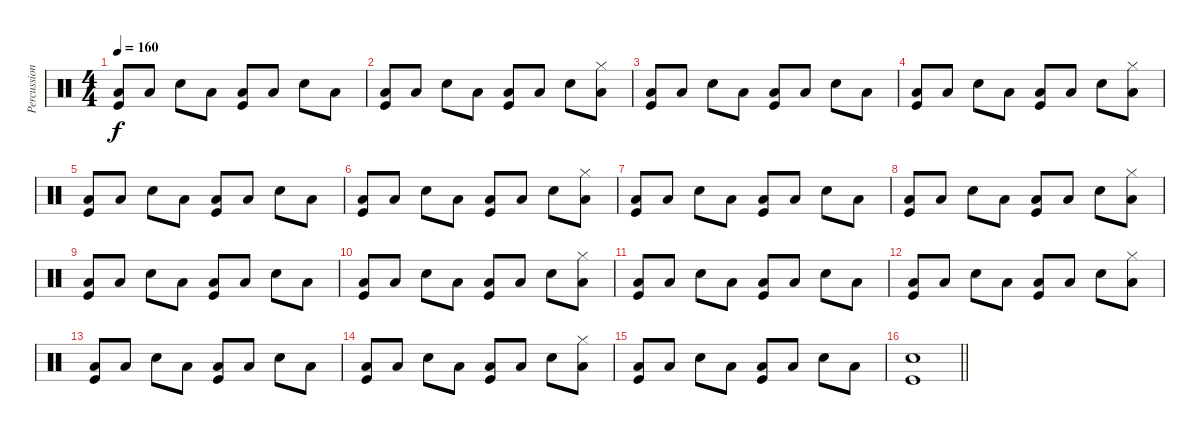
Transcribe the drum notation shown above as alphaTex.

\track ("Percussion" "Percussion") {instrument percussion}
\staff {score}
\articulation defaults
\ts (4 4)
\tempo 160
\clef neutral
\ks c
("Kick (hit)" "Low Floor Tom (hit)").8{dy f} "Low Floor Tom (hit)".8 "Electric Snare (hit)".8 "Low Floor Tom (hit)".8 ("Kick (hit)" "Low Floor Tom (hit)").8 "Low Floor Tom (hit)".8 "Electric Snare (hit)".8 "Low Floor Tom (hit)".8 |
("Kick (hit)" "Low Floor Tom (hit)").8 "Low Floor Tom (hit)".8 "Electric Snare (hit)".8 "Low Floor Tom (hit)".8 ("Kick (hit)" "Low Floor Tom (hit)").8 "Low Floor Tom (hit)".8 "Electric Snare (hit)".8 ("Low Floor Tom (hit)" "Hi-Hat (closed)").8 |
("Kick (hit)" "Low Floor Tom (hit)").8 "Low Floor Tom (hit)".8 "Electric Snare (hit)".8 "Low Floor Tom (hit)".8 ("Kick (hit)" "Low Floor Tom (hit)").8 "Low Floor Tom (hit)".8 "Electric Snare (hit)".8 "Low Floor Tom (hit)".8 |
("Kick (hit)" "Low Floor Tom (hit)").8 "Low Floor Tom (hit)".8 "Electric Snare (hit)".8 "Low Floor Tom (hit)".8 ("Kick (hit)" "Low Floor Tom (hit)").8 "Low Floor Tom (hit)".8 "Electric Snare (hit)".8 ("Low Floor Tom (hit)" "Hi-Hat (closed)").8 |
("Kick (hit)" "Low Floor Tom (hit)").8 "Low Floor Tom (hit)".8 "Electric Snare (hit)".8 "Low Floor Tom (hit)".8 ("Kick (hit)" "Low Floor Tom (hit)").8 "Low Floor Tom (hit)".8 "Electric Snare (hit)".8 "Low Floor Tom (hit)".8 |
("Kick (hit)" "Low Floor Tom (hit)").8 "Low Floor Tom (hit)".8 "Electric Snare (hit)".8 "Low Floor Tom (hit)".8 ("Kick (hit)" "Low Floor Tom (hit)").8 "Low Floor Tom (hit)".8 "Electric Snare (hit)".8 ("Low Floor Tom (hit)" "Hi-Hat (closed)").8 |
("Kick (hit)" "Low Floor Tom (hit)").8 "Low Floor Tom (hit)".8 "Electric Snare (hit)".8 "Low Floor Tom (hit)".8 ("Kick (hit)" "Low Floor Tom (hit)").8 "Low Floor Tom (hit)".8 "Electric Snare (hit)".8 "Low Floor Tom (hit)".8 |
("Kick (hit)" "Low Floor Tom (hit)").8 "Low Floor Tom (hit)".8 "Electric Snare (hit)".8 "Low Floor Tom (hit)".8 ("Kick (hit)" "Low Floor Tom (hit)").8 "Low Floor Tom (hit)".8 "Electric Snare (hit)".8 ("Low Floor Tom (hit)" "Hi-Hat (closed)").8 |
("Kick (hit)" "Low Floor Tom (hit)").8 "Low Floor Tom (hit)".8 "Electric Snare (hit)".8 "Low Floor Tom (hit)".8 ("Kick (hit)" "Low Floor Tom (hit)").8 "Low Floor Tom (hit)".8 "Electric Snare (hit)".8 "Low Floor Tom (hit)".8 |
("Kick (hit)" "Low Floor Tom (hit)").8 "Low Floor Tom (hit)".8 "Electric Snare (hit)".8 "Low Floor Tom (hit)".8 ("Kick (hit)" "Low Floor Tom (hit)").8 "Low Floor Tom (hit)".8 "Electric Snare (hit)".8 ("Low Floor Tom (hit)" "Hi-Hat (closed)").8 |
("Kick (hit)" "Low Floor Tom (hit)").8 "Low Floor Tom (hit)".8 "Electric Snare (hit)".8 "Low Floor Tom (hit)".8 ("Kick (hit)" "Low Floor Tom (hit)").8 "Low Floor Tom (hit)".8 "Electric Snare (hit)".8 "Low Floor Tom (hit)".8 |
("Kick (hit)" "Low Floor Tom (hit)").8 "Low Floor Tom (hit)".8 "Electric Snare (hit)".8 "Low Floor Tom (hit)".8 ("Kick (hit)" "Low Floor Tom (hit)").8 "Low Floor Tom (hit)".8 "Electric Snare (hit)".8 ("Low Floor Tom (hit)" "Hi-Hat (closed)").8 |
("Kick (hit)" "Low Floor Tom (hit)").8 "Low Floor Tom (hit)".8 "Electric Snare (hit)".8 "Low Floor Tom (hit)".8 ("Kick (hit)" "Low Floor Tom (hit)").8 "Low Floor Tom (hit)".8 "Electric Snare (hit)".8 "Low Floor Tom (hit)".8 |
("Kick (hit)" "Low Floor Tom (hit)").8 "Low Floor Tom (hit)".8 "Electric Snare (hit)".8 "Low Floor Tom (hit)".8 ("Kick (hit)" "Low Floor Tom (hit)").8 "Low Floor Tom (hit)".8 "Electric Snare (hit)".8 ("Low Floor Tom (hit)" "Hi-Hat (closed)").8 |
("Kick (hit)" "Low Floor Tom (hit)").8 "Low Floor Tom (hit)".8 "Electric Snare (hit)".8 "Low Floor Tom (hit)".8 ("Kick (hit)" "Low Floor Tom (hit)").8 "Low Floor Tom (hit)".8 "Electric Snare (hit)".8 "Low Floor Tom (hit)".8 |
\barLineRight lightlight
("Kick (hit)" "Electric Snare (hit)").1
